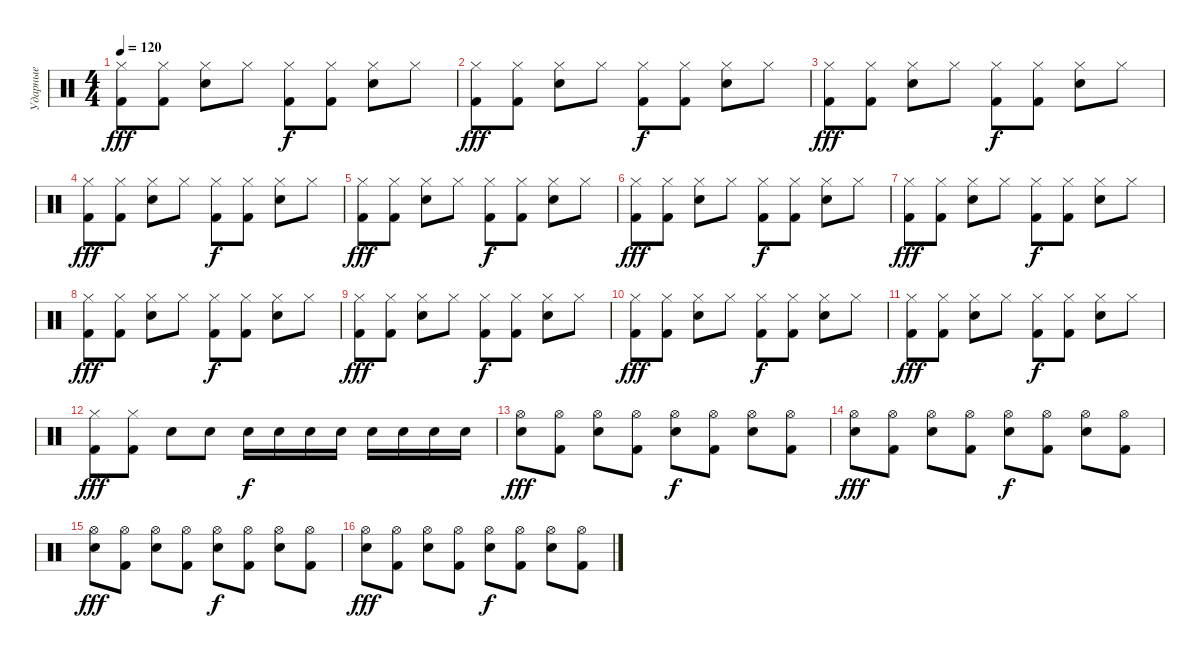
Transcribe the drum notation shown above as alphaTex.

\track ("Ударные" "Ударные") {instrument percussion}
\staff {score}
\articulation defaults
\ts (4 4)
\tempo 120
\clef neutral
\ks c
("Hi-Hat (closed)" "Kick (hit) 2").8{dy fff} ("Hi-Hat (closed)" "Kick (hit) 2").8 ("Hi-Hat (closed)" "Snare (hit) 2").8 "Hi-Hat (closed)".8 ("Hi-Hat (closed)" "Kick (hit) 2").8{dy f} ("Hi-Hat (closed)" "Kick (hit) 2").8 ("Hi-Hat (closed)" "Snare (hit) 2").8 "Hi-Hat (closed)".8 |
("Hi-Hat (closed)" "Kick (hit) 2").8{dy fff} ("Hi-Hat (closed)" "Kick (hit) 2").8 ("Hi-Hat (closed)" "Snare (hit) 2").8 "Hi-Hat (closed)".8 ("Hi-Hat (closed)" "Kick (hit) 2").8{dy f} ("Hi-Hat (closed)" "Kick (hit) 2").8 ("Hi-Hat (closed)" "Snare (hit) 2").8 "Hi-Hat (closed)".8 |
("Hi-Hat (closed)" "Kick (hit) 2").8{dy fff} ("Hi-Hat (closed)" "Kick (hit) 2").8 ("Hi-Hat (closed)" "Snare (hit) 2").8 "Hi-Hat (closed)".8 ("Hi-Hat (closed)" "Kick (hit) 2").8{dy f} ("Hi-Hat (closed)" "Kick (hit) 2").8 ("Hi-Hat (closed)" "Snare (hit) 2").8 "Hi-Hat (closed)".8 |
("Hi-Hat (closed)" "Kick (hit) 2").8{dy fff} ("Hi-Hat (closed)" "Kick (hit) 2").8 ("Hi-Hat (closed)" "Snare (hit) 2").8 "Hi-Hat (closed)".8 ("Hi-Hat (closed)" "Kick (hit) 2").8{dy f} ("Hi-Hat (closed)" "Kick (hit) 2").8 ("Hi-Hat (closed)" "Snare (hit) 2").8 "Hi-Hat (closed)".8 |
("Hi-Hat (closed)" "Kick (hit) 2").8{dy fff} ("Hi-Hat (closed)" "Kick (hit) 2").8 ("Hi-Hat (closed)" "Snare (hit) 2").8 "Hi-Hat (closed)".8 ("Hi-Hat (closed)" "Kick (hit) 2").8{dy f} ("Hi-Hat (closed)" "Kick (hit) 2").8 ("Hi-Hat (closed)" "Snare (hit) 2").8 "Hi-Hat (closed)".8 |
("Hi-Hat (closed)" "Kick (hit) 2").8{dy fff} ("Hi-Hat (closed)" "Kick (hit) 2").8 ("Hi-Hat (closed)" "Snare (hit) 2").8 "Hi-Hat (closed)".8 ("Hi-Hat (closed)" "Kick (hit) 2").8{dy f} ("Hi-Hat (closed)" "Kick (hit) 2").8 ("Hi-Hat (closed)" "Snare (hit) 2").8 "Hi-Hat (closed)".8 |
("Hi-Hat (closed)" "Kick (hit) 2").8{dy fff} ("Hi-Hat (closed)" "Kick (hit) 2").8 ("Hi-Hat (closed)" "Snare (hit) 2").8 "Hi-Hat (closed)".8 ("Hi-Hat (closed)" "Kick (hit) 2").8{dy f} ("Hi-Hat (closed)" "Kick (hit) 2").8 ("Hi-Hat (closed)" "Snare (hit) 2").8 "Hi-Hat (closed)".8 |
("Hi-Hat (closed)" "Kick (hit) 2").8{dy fff} ("Hi-Hat (closed)" "Kick (hit) 2").8 ("Hi-Hat (closed)" "Snare (hit) 2").8 "Hi-Hat (closed)".8 ("Hi-Hat (closed)" "Kick (hit) 2").8{dy f} ("Hi-Hat (closed)" "Kick (hit) 2").8 ("Hi-Hat (closed)" "Snare (hit) 2").8 "Hi-Hat (closed)".8 |
("Hi-Hat (closed)" "Kick (hit) 2").8{dy fff} ("Hi-Hat (closed)" "Kick (hit) 2").8 ("Hi-Hat (closed)" "Snare (hit) 2").8 "Hi-Hat (closed)".8 ("Hi-Hat (closed)" "Kick (hit) 2").8{dy f} ("Hi-Hat (closed)" "Kick (hit) 2").8 ("Hi-Hat (closed)" "Snare (hit) 2").8 "Hi-Hat (closed)".8 |
("Hi-Hat (closed)" "Kick (hit) 2").8{dy fff} ("Hi-Hat (closed)" "Kick (hit) 2").8 ("Hi-Hat (closed)" "Snare (hit) 2").8 "Hi-Hat (closed)".8 ("Hi-Hat (closed)" "Kick (hit) 2").8{dy f} ("Hi-Hat (closed)" "Kick (hit) 2").8 ("Hi-Hat (closed)" "Snare (hit) 2").8 "Hi-Hat (closed)".8 |
("Hi-Hat (closed)" "Kick (hit) 2").8{dy fff} ("Hi-Hat (closed)" "Kick (hit) 2").8 ("Hi-Hat (closed)" "Snare (hit) 2").8 "Hi-Hat (closed)".8 ("Hi-Hat (closed)" "Kick (hit) 2").8{dy f} ("Hi-Hat (closed)" "Kick (hit) 2").8 ("Hi-Hat (closed)" "Snare (hit) 2").8 "Hi-Hat (closed)".8 |
("Hi-Hat (closed)" "Kick (hit) 2").8{dy fff} ("Hi-Hat (closed)" "Kick (hit) 2").8 "Snare (hit) 2".8 "Snare (hit) 2".8 "Snare (hit) 2".16{dy f} "Snare (hit) 2".16 "Snare (hit) 2".16 "Snare (hit) 2".16 "Snare (hit) 2".16 "Snare (hit) 2".16 "Snare (hit) 2".16 "Snare (hit) 2".16 |
("Hi-Hat (open)" "Snare (hit) 2").8{dy fff} ("Hi-Hat (open)" "Kick (hit) 2").8 ("Hi-Hat (open)" "Snare (hit) 2").8 ("Hi-Hat (open)" "Kick (hit) 2").8 ("Hi-Hat (open)" "Snare (hit) 2").8{dy f} ("Hi-Hat (open)" "Kick (hit) 2").8 ("Hi-Hat (open)" "Snare (hit) 2").8 ("Hi-Hat (open)" "Kick (hit) 2").8 |
("Hi-Hat (open)" "Snare (hit) 2").8{dy fff} ("Hi-Hat (open)" "Kick (hit) 2").8 ("Hi-Hat (open)" "Snare (hit) 2").8 ("Hi-Hat (open)" "Kick (hit) 2").8 ("Hi-Hat (open)" "Snare (hit) 2").8{dy f} ("Hi-Hat (open)" "Kick (hit) 2").8 ("Hi-Hat (open)" "Snare (hit) 2").8 ("Hi-Hat (open)" "Kick (hit) 2").8 |
("Hi-Hat (open)" "Snare (hit) 2").8{dy fff} ("Hi-Hat (open)" "Kick (hit) 2").8 ("Hi-Hat (open)" "Snare (hit) 2").8 ("Hi-Hat (open)" "Kick (hit) 2").8 ("Hi-Hat (open)" "Snare (hit) 2").8{dy f} ("Hi-Hat (open)" "Kick (hit) 2").8 ("Hi-Hat (open)" "Snare (hit) 2").8 ("Hi-Hat (open)" "Kick (hit) 2").8 |
("Hi-Hat (open)" "Snare (hit) 2").8{dy fff} ("Hi-Hat (open)" "Kick (hit) 2").8 ("Hi-Hat (open)" "Snare (hit) 2").8 ("Hi-Hat (open)" "Kick (hit) 2").8 ("Hi-Hat (open)" "Snare (hit) 2").8{dy f} ("Hi-Hat (open)" "Kick (hit) 2").8 ("Hi-Hat (open)" "Snare (hit) 2").8 ("Hi-Hat (open)" "Kick (hit) 2").8
